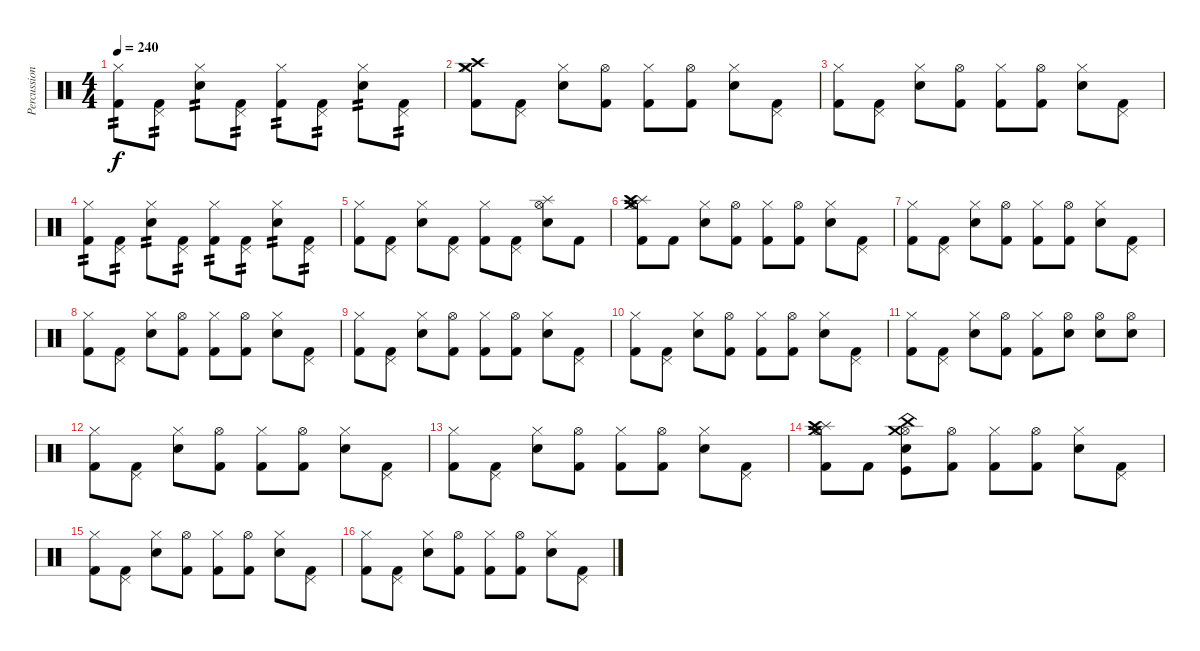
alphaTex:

\track ("Percussion" "Percussion") {instrument percussion}
\staff {score}
\articulation defaults
\ts (4 4)
\tempo 240
\clef neutral
\ks c
("Hi-Hat (closed)" "Kick (hit) 2").8{tp 2 dy f} ("Pedal Hi-Hat (hit)" "Kick (hit) 2").8{tp 2} ("Hi-Hat (closed)" "Snare (hit) 2").8{tp 2} ("Pedal Hi-Hat (hit)" "Kick (hit) 2").8{tp 2} ("Hi-Hat (closed)" "Kick (hit) 2").8{tp 2} ("Pedal Hi-Hat (hit)" "Kick (hit) 2").8{tp 2} ("Hi-Hat (closed)" "Snare (hit) 2").8{tp 2} ("Pedal Hi-Hat (hit)" "Kick (hit) 2").8{tp 2} |
("Hi-Hat (closed)" "Crash medium (hit)" "Crash high (hit)" "Kick (hit) 2").8 ("Pedal Hi-Hat (hit)" "Kick (hit) 2").8 ("Hi-Hat (closed)" "Snare (hit) 2").8 ("Hi-Hat (open)" "Kick (hit) 2").8 ("Hi-Hat (closed)" "Kick (hit) 2").8 ("Hi-Hat (open)" "Kick (hit) 2").8 ("Hi-Hat (closed)" "Snare (hit) 2").8 ("Pedal Hi-Hat (hit)" "Kick (hit) 2").8 |
("Hi-Hat (closed)" "Kick (hit) 2").8 ("Pedal Hi-Hat (hit)" "Kick (hit) 2").8 ("Hi-Hat (closed)" "Snare (hit) 2").8 ("Hi-Hat (open)" "Kick (hit) 2").8 ("Hi-Hat (closed)" "Kick (hit) 2").8 ("Hi-Hat (open)" "Kick (hit) 2").8 ("Hi-Hat (closed)" "Snare (hit) 2").8 ("Pedal Hi-Hat (hit)" "Kick (hit) 2").8 |
("Hi-Hat (closed)" "Kick (hit) 2").8{tp 2} ("Pedal Hi-Hat (hit)" "Kick (hit) 2").8{tp 2} ("Hi-Hat (closed)" "Snare (hit) 2").8{tp 2} ("Pedal Hi-Hat (hit)" "Kick (hit) 2").8{tp 2} ("Hi-Hat (closed)" "Kick (hit) 2").8{tp 2} ("Pedal Hi-Hat (hit)" "Kick (hit) 2").8{tp 2} ("Hi-Hat (closed)" "Snare (hit) 2").8{tp 2} ("Pedal Hi-Hat (hit)" "Kick (hit) 2").8{tp 2} |
("Hi-Hat (closed)" "Kick (hit) 2").8 ("Pedal Hi-Hat (hit)" "Kick (hit) 2").8 ("Hi-Hat (closed)" "Snare (hit) 2").8 ("Pedal Hi-Hat (hit)" "Kick (hit) 2").8 ("Hi-Hat (closed)" "Kick (hit) 2").8 ("Pedal Hi-Hat (hit)" "Kick (hit) 2").8 ("Hi-Hat (open)" "Splash (hit)" "Snare (hit) 2").8 "Kick (hit) 2".8 |
("Splash (hit)" "Crash medium (hit)" "Crash high (hit)" "Hi-Hat (open)" "Kick (hit) 2").8 "Kick (hit) 2".8 ("Hi-Hat (closed)" "Snare (hit) 2").8 ("Hi-Hat (open)" "Kick (hit) 2").8 ("Hi-Hat (closed)" "Kick (hit) 2").8 ("Hi-Hat (open)" "Kick (hit) 2").8 ("Hi-Hat (closed)" "Snare (hit) 2").8 ("Pedal Hi-Hat (hit)" "Kick (hit) 2").8 |
("Hi-Hat (closed)" "Kick (hit) 2").8 ("Pedal Hi-Hat (hit)" "Kick (hit) 2").8 ("Hi-Hat (closed)" "Snare (hit) 2").8 ("Hi-Hat (open)" "Kick (hit) 2").8 ("Hi-Hat (closed)" "Kick (hit) 2").8 ("Hi-Hat (open)" "Kick (hit) 2").8 ("Hi-Hat (closed)" "Snare (hit) 2").8 ("Pedal Hi-Hat (hit)" "Kick (hit) 2").8 |
("Hi-Hat (closed)" "Kick (hit) 2").8 ("Pedal Hi-Hat (hit)" "Kick (hit) 2").8 ("Hi-Hat (closed)" "Snare (hit) 2").8 ("Hi-Hat (open)" "Kick (hit) 2").8 ("Hi-Hat (closed)" "Kick (hit) 2").8 ("Hi-Hat (open)" "Kick (hit) 2").8 ("Hi-Hat (closed)" "Snare (hit) 2").8 ("Pedal Hi-Hat (hit)" "Kick (hit) 2").8 |
("Hi-Hat (closed)" "Kick (hit) 2").8 ("Pedal Hi-Hat (hit)" "Kick (hit) 2").8 ("Hi-Hat (closed)" "Snare (hit) 2").8 ("Hi-Hat (open)" "Kick (hit) 2").8 ("Hi-Hat (closed)" "Kick (hit) 2").8 ("Hi-Hat (open)" "Kick (hit) 2").8 ("Hi-Hat (closed)" "Snare (hit) 2").8 ("Pedal Hi-Hat (hit)" "Kick (hit) 2").8 |
("Hi-Hat (closed)" "Kick (hit) 2").8 ("Pedal Hi-Hat (hit)" "Kick (hit) 2").8 ("Hi-Hat (closed)" "Snare (hit) 2").8 ("Hi-Hat (open)" "Kick (hit) 2").8 ("Hi-Hat (closed)" "Kick (hit) 2").8 ("Hi-Hat (open)" "Kick (hit) 2").8 ("Hi-Hat (closed)" "Snare (hit) 2").8 ("Pedal Hi-Hat (hit)" "Kick (hit) 2").8 |
("Hi-Hat (closed)" "Kick (hit) 2").8 ("Pedal Hi-Hat (hit)" "Kick (hit) 2").8 ("Hi-Hat (closed)" "Snare (hit) 2").8 ("Hi-Hat (open)" "Kick (hit) 2").8 ("Hi-Hat (closed)" "Kick (hit) 2").8 ("Hi-Hat (open)" "Snare (hit) 2").8 ("Hi-Hat (open)" "Snare (hit) 2").8 ("Hi-Hat (open)" "Snare (hit) 2").8 |
("Hi-Hat (closed)" "Kick (hit) 2").8 ("Pedal Hi-Hat (hit)" "Kick (hit) 2").8 ("Hi-Hat (closed)" "Snare (hit) 2").8 ("Hi-Hat (open)" "Kick (hit) 2").8 ("Hi-Hat (closed)" "Kick (hit) 2").8 ("Hi-Hat (open)" "Kick (hit) 2").8 ("Hi-Hat (closed)" "Snare (hit) 2").8 ("Pedal Hi-Hat (hit)" "Kick (hit) 2").8 |
("Hi-Hat (closed)" "Kick (hit) 2").8 ("Pedal Hi-Hat (hit)" "Kick (hit) 2").8 ("Hi-Hat (closed)" "Snare (hit) 2").8 ("Hi-Hat (open)" "Kick (hit) 2").8 ("Hi-Hat (closed)" "Kick (hit) 2").8 ("Hi-Hat (open)" "Kick (hit) 2").8 ("Hi-Hat (closed)" "Snare (hit) 2").8 ("Pedal Hi-Hat (hit)" "Kick (hit) 2").8 |
("Splash (hit)" "Crash medium (hit)" "Crash high (hit)" "Hi-Hat (open)" "Kick (hit) 2").8 "Kick (hit) 2".8 ("Hi-Hat (open)" "China (hit)" "Crash medium (hit)" "Kick (hit)" "Snare (hit) 2").8 ("Hi-Hat (open)" "Kick (hit) 2").8 ("Hi-Hat (closed)" "Kick (hit) 2").8 ("Hi-Hat (open)" "Kick (hit) 2").8 ("Hi-Hat (closed)" "Snare (hit) 2").8 ("Pedal Hi-Hat (hit)" "Kick (hit) 2").8 |
("Hi-Hat (closed)" "Kick (hit) 2").8 ("Pedal Hi-Hat (hit)" "Kick (hit) 2").8 ("Hi-Hat (closed)" "Snare (hit) 2").8 ("Hi-Hat (open)" "Kick (hit) 2").8 ("Hi-Hat (closed)" "Kick (hit) 2").8 ("Hi-Hat (open)" "Kick (hit) 2").8 ("Hi-Hat (closed)" "Snare (hit) 2").8 ("Pedal Hi-Hat (hit)" "Kick (hit) 2").8 |
("Hi-Hat (closed)" "Kick (hit) 2").8 ("Pedal Hi-Hat (hit)" "Kick (hit) 2").8 ("Hi-Hat (closed)" "Snare (hit) 2").8 ("Hi-Hat (open)" "Kick (hit) 2").8 ("Hi-Hat (closed)" "Kick (hit) 2").8 ("Hi-Hat (open)" "Kick (hit) 2").8 ("Hi-Hat (closed)" "Snare (hit) 2").8 ("Pedal Hi-Hat (hit)" "Kick (hit) 2").8
